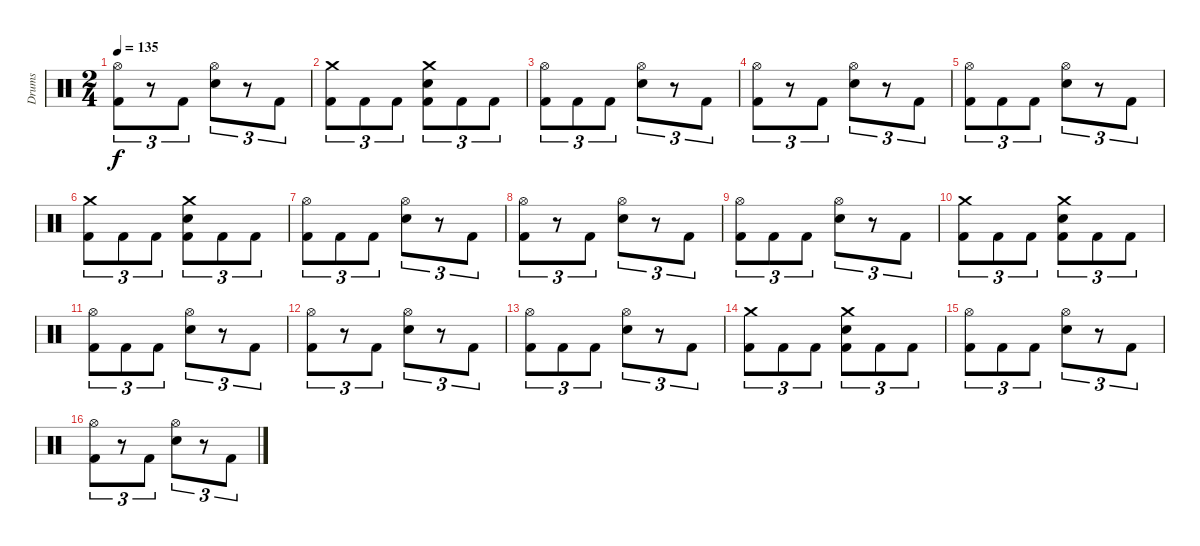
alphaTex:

\track ("Drums" "Drums") {instrument percussion}
\staff {score}
\articulation defaults
\ts (2 4)
\tempo 135
\clef neutral
\ks c
("Hi-Hat (open)" "Kick (hit) 2").8{tu (3 2) dy f} r.8{tu (3 2)} "Kick (hit) 2".8{tu (3 2)} ("Hi-Hat (open)" "Electric Snare (hit)").8{tu (3 2)} r.8{tu (3 2)} "Kick (hit) 2".8{tu (3 2)} |
("Crash medium (hit)" "Kick (hit) 2").8{tu (3 2)} "Kick (hit) 2".8{tu (3 2)} "Kick (hit) 2".8{tu (3 2)} ("Crash medium (hit)" "Electric Snare (hit)" "Kick (hit) 2").8{tu (3 2)} "Kick (hit) 2".8{tu (3 2)} "Kick (hit) 2".8{tu (3 2)} |
("Hi-Hat (open)" "Kick (hit) 2").8{tu (3 2)} "Kick (hit) 2".8{tu (3 2)} "Kick (hit) 2".8{tu (3 2)} ("Hi-Hat (open)" "Electric Snare (hit)").8{tu (3 2)} r.8{tu (3 2)} "Kick (hit) 2".8{tu (3 2)} |
("Hi-Hat (open)" "Kick (hit) 2").8{tu (3 2)} r.8{tu (3 2)} "Kick (hit) 2".8{tu (3 2)} ("Hi-Hat (open)" "Electric Snare (hit)").8{tu (3 2)} r.8{tu (3 2)} "Kick (hit) 2".8{tu (3 2)} |
("Hi-Hat (open)" "Kick (hit) 2").8{tu (3 2)} "Kick (hit) 2".8{tu (3 2)} "Kick (hit) 2".8{tu (3 2)} ("Hi-Hat (open)" "Electric Snare (hit)").8{tu (3 2)} r.8{tu (3 2)} "Kick (hit) 2".8{tu (3 2)} |
("Crash medium (hit)" "Kick (hit) 2").8{tu (3 2)} "Kick (hit) 2".8{tu (3 2)} "Kick (hit) 2".8{tu (3 2)} ("Crash medium (hit)" "Electric Snare (hit)" "Kick (hit) 2").8{tu (3 2)} "Kick (hit) 2".8{tu (3 2)} "Kick (hit) 2".8{tu (3 2)} |
("Hi-Hat (open)" "Kick (hit) 2").8{tu (3 2)} "Kick (hit) 2".8{tu (3 2)} "Kick (hit) 2".8{tu (3 2)} ("Hi-Hat (open)" "Electric Snare (hit)").8{tu (3 2)} r.8{tu (3 2)} "Kick (hit) 2".8{tu (3 2)} |
("Hi-Hat (open)" "Kick (hit) 2").8{tu (3 2)} r.8{tu (3 2)} "Kick (hit) 2".8{tu (3 2)} ("Hi-Hat (open)" "Electric Snare (hit)").8{tu (3 2)} r.8{tu (3 2)} "Kick (hit) 2".8{tu (3 2)} |
("Hi-Hat (open)" "Kick (hit) 2").8{tu (3 2)} "Kick (hit) 2".8{tu (3 2)} "Kick (hit) 2".8{tu (3 2)} ("Hi-Hat (open)" "Electric Snare (hit)").8{tu (3 2)} r.8{tu (3 2)} "Kick (hit) 2".8{tu (3 2)} |
("Crash medium (hit)" "Kick (hit) 2").8{tu (3 2)} "Kick (hit) 2".8{tu (3 2)} "Kick (hit) 2".8{tu (3 2)} ("Crash medium (hit)" "Electric Snare (hit)" "Kick (hit) 2").8{tu (3 2)} "Kick (hit) 2".8{tu (3 2)} "Kick (hit) 2".8{tu (3 2)} |
("Hi-Hat (open)" "Kick (hit) 2").8{tu (3 2)} "Kick (hit) 2".8{tu (3 2)} "Kick (hit) 2".8{tu (3 2)} ("Hi-Hat (open)" "Electric Snare (hit)").8{tu (3 2)} r.8{tu (3 2)} "Kick (hit) 2".8{tu (3 2)} |
("Hi-Hat (open)" "Kick (hit) 2").8{tu (3 2)} r.8{tu (3 2)} "Kick (hit) 2".8{tu (3 2)} ("Hi-Hat (open)" "Electric Snare (hit)").8{tu (3 2)} r.8{tu (3 2)} "Kick (hit) 2".8{tu (3 2)} |
("Hi-Hat (open)" "Kick (hit) 2").8{tu (3 2)} "Kick (hit) 2".8{tu (3 2)} "Kick (hit) 2".8{tu (3 2)} ("Hi-Hat (open)" "Electric Snare (hit)").8{tu (3 2)} r.8{tu (3 2)} "Kick (hit) 2".8{tu (3 2)} |
("Crash medium (hit)" "Kick (hit) 2").8{tu (3 2)} "Kick (hit) 2".8{tu (3 2)} "Kick (hit) 2".8{tu (3 2)} ("Crash medium (hit)" "Electric Snare (hit)" "Kick (hit) 2").8{tu (3 2)} "Kick (hit) 2".8{tu (3 2)} "Kick (hit) 2".8{tu (3 2)} |
("Hi-Hat (open)" "Kick (hit) 2").8{tu (3 2)} "Kick (hit) 2".8{tu (3 2)} "Kick (hit) 2".8{tu (3 2)} ("Hi-Hat (open)" "Electric Snare (hit)").8{tu (3 2)} r.8{tu (3 2)} "Kick (hit) 2".8{tu (3 2)} |
("Hi-Hat (open)" "Kick (hit) 2").8{tu (3 2)} r.8{tu (3 2)} "Kick (hit) 2".8{tu (3 2)} ("Hi-Hat (open)" "Electric Snare (hit)").8{tu (3 2)} r.8{tu (3 2)} "Kick (hit) 2".8{tu (3 2)}
